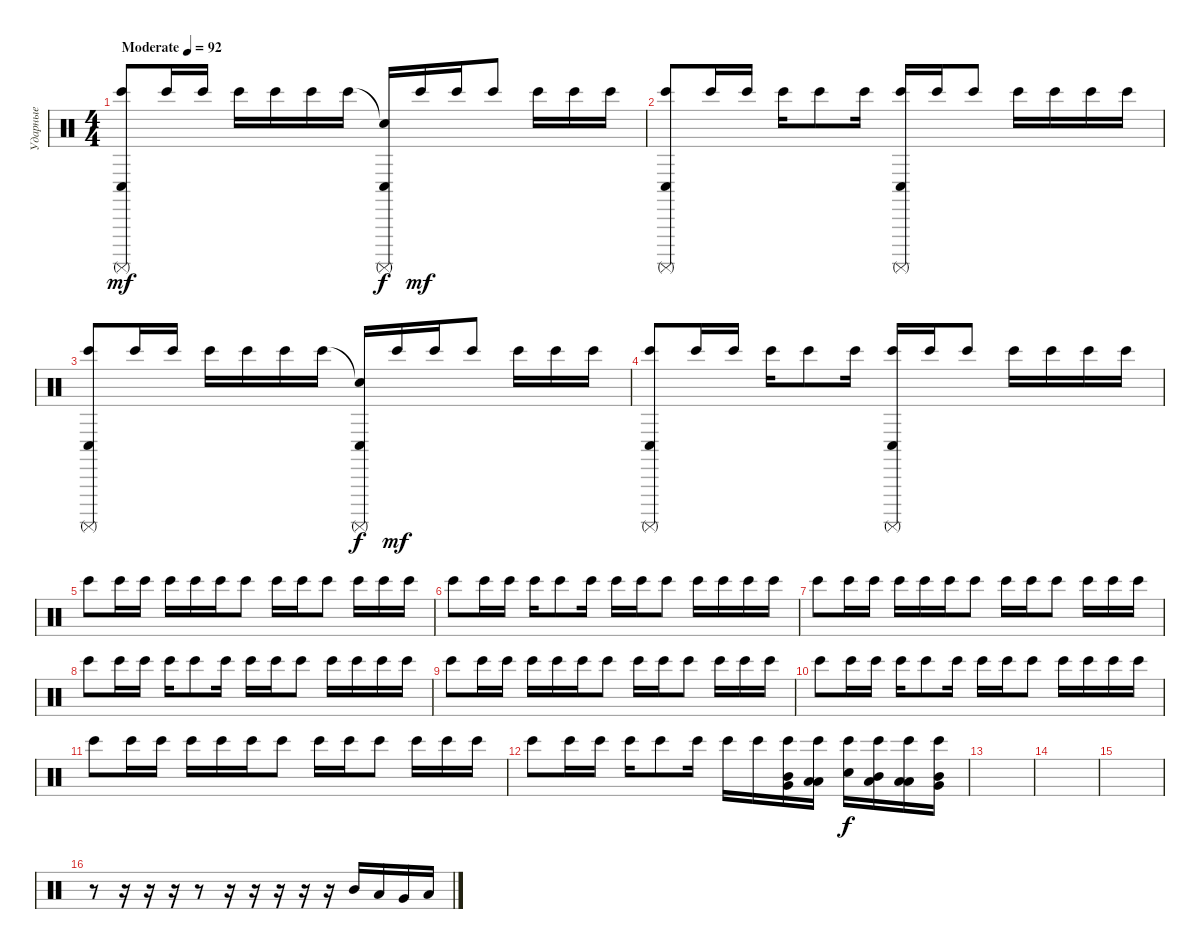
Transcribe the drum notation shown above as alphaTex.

\track ("Ударные" "Ударные") {instrument percussion}
\staff {score}
\articulation defaults
\ts (4 4)
\tempo (92 "Moderate")
\clef neutral
\ks c
("Bongo High (hit)" "Conga low (hit)" "Surdo (mute)").8{dy mf} "Bongo High (hit)".16 "Bongo High (hit)".16 "Bongo High (hit)".16 "Bongo High (hit)".16 "Bongo High (hit)".16 "Bongo High (hit)".16 ("Snare (hit)"{t} "Conga low (hit)" "Surdo (mute)").16{dy f} "Bongo High (hit)".16{dy mf} "Bongo High (hit)".16 "Bongo High (hit)".8 "Bongo High (hit)".16 "Bongo High (hit)".16 "Bongo High (hit)".16 |
("Bongo High (hit)" "Conga low (hit)" "Surdo (mute)").8 "Bongo High (hit)".16 "Bongo High (hit)".16 "Bongo High (hit)".16 "Bongo High (hit)".8 "Bongo High (hit)".16 ("Bongo High (hit)" "Conga low (hit)" "Surdo (mute)").16 "Bongo High (hit)".16 "Bongo High (hit)".8 "Bongo High (hit)".16 "Bongo High (hit)".16 "Bongo High (hit)".16 "Bongo High (hit)".16 |
("Bongo High (hit)" "Conga low (hit)" "Surdo (mute)").8 "Bongo High (hit)".16 "Bongo High (hit)".16 "Bongo High (hit)".16 "Bongo High (hit)".16 "Bongo High (hit)".16 "Bongo High (hit)".16 ("Snare (hit)"{t} "Conga low (hit)" "Surdo (mute)").16{dy f} "Bongo High (hit)".16{dy mf} "Bongo High (hit)".16 "Bongo High (hit)".8 "Bongo High (hit)".16 "Bongo High (hit)".16 "Bongo High (hit)".16 |
("Bongo High (hit)" "Conga low (hit)" "Surdo (mute)").8 "Bongo High (hit)".16 "Bongo High (hit)".16 "Bongo High (hit)".16 "Bongo High (hit)".8 "Bongo High (hit)".16 ("Bongo High (hit)" "Conga low (hit)" "Surdo (mute)").16 "Bongo High (hit)".16 "Bongo High (hit)".8 "Bongo High (hit)".16 "Bongo High (hit)".16 "Bongo High (hit)".16 "Bongo High (hit)".16 |
"Bongo High (hit)".8 "Bongo High (hit)".16 "Bongo High (hit)".16 "Bongo High (hit)".16 "Bongo High (hit)".16 "Bongo High (hit)".16 "Bongo High (hit)".8 "Bongo High (hit)".16 "Bongo High (hit)".16 "Bongo High (hit)".8 "Bongo High (hit)".16 "Bongo High (hit)".16 "Bongo High (hit)".16 |
"Bongo High (hit)".8 "Bongo High (hit)".16 "Bongo High (hit)".16 "Bongo High (hit)".16 "Bongo High (hit)".8 "Bongo High (hit)".16 "Bongo High (hit)".16 "Bongo High (hit)".16 "Bongo High (hit)".8 "Bongo High (hit)".16 "Bongo High (hit)".16 "Bongo High (hit)".16 "Bongo High (hit)".16 |
"Bongo High (hit)".8 "Bongo High (hit)".16 "Bongo High (hit)".16 "Bongo High (hit)".16 "Bongo High (hit)".16 "Bongo High (hit)".16 "Bongo High (hit)".8 "Bongo High (hit)".16 "Bongo High (hit)".16 "Bongo High (hit)".8 "Bongo High (hit)".16 "Bongo High (hit)".16 "Bongo High (hit)".16 |
"Bongo High (hit)".8 "Bongo High (hit)".16 "Bongo High (hit)".16 "Bongo High (hit)".16 "Bongo High (hit)".8 "Bongo High (hit)".16 "Bongo High (hit)".16 "Bongo High (hit)".16 "Bongo High (hit)".8 "Bongo High (hit)".16 "Bongo High (hit)".16 "Bongo High (hit)".16 "Bongo High (hit)".16 |
"Bongo High (hit)".8 "Bongo High (hit)".16 "Bongo High (hit)".16 "Bongo High (hit)".16 "Bongo High (hit)".16 "Bongo High (hit)".16 "Bongo High (hit)".8 "Bongo High (hit)".16 "Bongo High (hit)".16 "Bongo High (hit)".8 "Bongo High (hit)".16 "Bongo High (hit)".16 "Bongo High (hit)".16 |
"Bongo High (hit)".8 "Bongo High (hit)".16 "Bongo High (hit)".16 "Bongo High (hit)".16 "Bongo High (hit)".8 "Bongo High (hit)".16 "Bongo High (hit)".16 "Bongo High (hit)".16 "Bongo High (hit)".8 "Bongo High (hit)".16 "Bongo High (hit)".16 "Bongo High (hit)".16 "Bongo High (hit)".16 |
"Bongo High (hit)".8 "Bongo High (hit)".16 "Bongo High (hit)".16 "Bongo High (hit)".16 "Bongo High (hit)".16 "Bongo High (hit)".16 "Bongo High (hit)".8 "Bongo High (hit)".16 "Bongo High (hit)".16 "Bongo High (hit)".8 "Bongo High (hit)".16 "Bongo High (hit)".16 "Bongo High (hit)".16 |
"Bongo High (hit)".8 "Bongo High (hit)".16 "Bongo High (hit)".16 "Bongo High (hit)".16 "Bongo High (hit)".8 "Bongo High (hit)".16 "Bongo High (hit)".16 "Bongo High (hit)".16 ("Bongo High (hit)" "Very Low Tom (hit)" "Mid Tom (hit)").16 ("Bongo High (hit)" "Low Floor Tom (hit)" "Low Tom (hit)").16 ("Bongo High (hit)" "Electric Snare (hit)").16{dy f} ("Bongo High (hit)" "Mid Tom (hit)" "Low Tom (hit)").16 ("Bongo High (hit)" "Low Tom (hit)" "Low Floor Tom (hit)").16 ("Bongo High (hit)" "Very Low Tom (hit)" "Mid Tom (hit)").16 |
|
|
|
r.8 r.16 r.16 r.16 r.8 r.16 r.16 r.16 r.16 r.16 "Mid Tom (hit)".16 "Low Tom (hit)".16 "Very Low Tom (hit)".16 "Low Floor Tom (hit)".16
